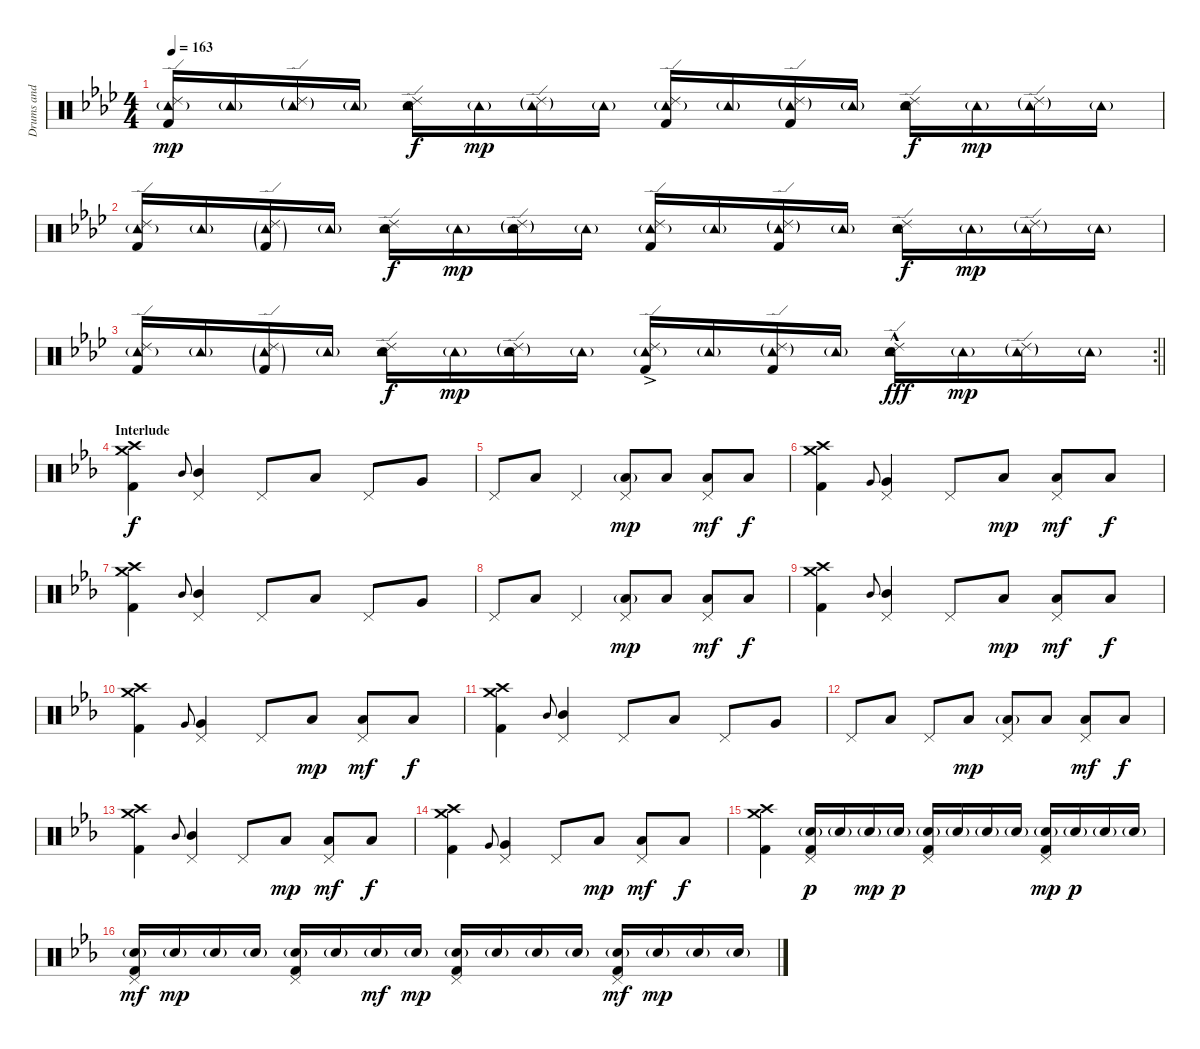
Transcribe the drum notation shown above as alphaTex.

\track ("Drums and Perc." "Drums and ") {instrument percussion}
\staff {score}
\articulation defaults
\ts (4 4)
\tempo 163
\clef neutral
\ks fminor
("Ride (edge) 2" "Tambourine (hit)"{g} "Kick (hit) 2").16{dy mp} "Tambourine (hit)"{g}.16 ("Ride (edge) 2"{g} "Tambourine (hit)"{g}).16 "Tambourine (hit)"{g}.16 ("Ride (edge) 2" "Tambourine (hit)" "Snare (hit) 2").16{dy f} "Tambourine (hit)"{g}.16{dy mp} ("Ride (edge) 2"{g} "Tambourine (hit)"{g}).16 "Tambourine (hit)"{g}.16 ("Ride (edge) 2" "Tambourine (hit)"{g} "Kick (hit) 2").16 "Tambourine (hit)"{g}.16 ("Ride (edge) 2"{g} "Tambourine (hit)"{g} "Kick (hit) 2").16 "Tambourine (hit)"{g}.16 ("Ride (edge) 2" "Tambourine (hit)" "Snare (hit) 2").16{dy f} "Tambourine (hit)"{g}.16{dy mp} ("Ride (edge) 2"{g} "Tambourine (hit)"{g}).16 "Tambourine (hit)"{g}.16 |
("Ride (edge) 2" "Tambourine (hit)"{g} "Kick (hit) 2").16 "Tambourine (hit)"{g}.16 ("Ride (edge) 2"{g} "Tambourine (hit)"{g} "Kick (hit) 2"{g}).16 "Tambourine (hit)"{g}.16 ("Ride (edge) 2" "Tambourine (hit)" "Snare (hit) 2").16{dy f} "Tambourine (hit)"{g}.16{dy mp} ("Ride (edge) 2"{g} "Tambourine (hit)"{g} "Snare (hit) 2").16 "Tambourine (hit)"{g}.16 ("Ride (edge) 2" "Tambourine (hit)"{g} "Kick (hit) 2").16 "Tambourine (hit)"{g}.16 ("Ride (edge) 2"{g} "Tambourine (hit)"{g} "Kick (hit) 2").16 "Tambourine (hit)"{g}.16 ("Ride (edge) 2" "Tambourine (hit)" "Snare (hit) 2").16{dy f} "Tambourine (hit)"{g}.16{dy mp} ("Ride (edge) 2"{g} "Tambourine (hit)"{g}).16 "Tambourine (hit)"{g}.16 |
\rc 2
\barLineRight lightlight
("Ride (edge) 2" "Tambourine (hit)"{g} "Kick (hit) 2").16 "Tambourine (hit)"{g}.16 ("Ride (edge) 2"{g} "Tambourine (hit)"{g} "Kick (hit) 2"{g}).16 "Tambourine (hit)"{g}.16 ("Ride (edge) 2" "Tambourine (hit)" "Snare (hit) 2").16{dy f} "Tambourine (hit)"{g}.16{dy mp} ("Ride (edge) 2"{g} "Tambourine (hit)"{g} "Snare (hit) 2").16 "Tambourine (hit)"{g}.16 ("Ride (edge) 2"{ac} "Tambourine (hit)"{g} "Kick (hit) 2").16 "Tambourine (hit)"{g}.16 ("Ride (edge) 2"{g} "Tambourine (hit)"{g} "Kick (hit) 2").16 "Tambourine (hit)"{g}.16 ("Ride (edge) 2"{hac} "Tambourine (hit)" "Snare (hit) 2").16{dy fff} "Tambourine (hit)"{g}.16{dy mp} ("Ride (edge) 2"{g} "Tambourine (hit)"{g}).16 "Tambourine (hit)"{g}.16 |
\section ("" "Interlude")
\ks cminor
("Crash high (hit)" "Crash medium (hit)" "Kick (hit) 2").4{dy f} "Mid Tom (hit)".8{gr onbeat} ("Pedal Hi-Hat (hit)" "Mid Tom (hit)").4 "Pedal Hi-Hat (hit)".8 "Low Tom (hit)".8 "Pedal Hi-Hat (hit)".8 "Very Low Tom (hit)".8 |
"Pedal Hi-Hat (hit)".8 "Low Floor Tom (hit)".8 "Pedal Hi-Hat (hit)".4 ("Pedal Hi-Hat (hit)" "Low Tom (hit)"{g}).8{dy mp} "Low Tom (hit)".8 ("Pedal Hi-Hat (hit)" "Low Tom (hit)").8{dy mf} "Low Tom (hit)".8{dy f} |
("Crash high (hit)" "Crash medium (hit)" "Kick (hit) 2").4 "Very Low Tom (hit)".8{gr onbeat} ("Pedal Hi-Hat (hit)" "Very Low Tom (hit)").4 "Pedal Hi-Hat (hit)".8 "Low Floor Tom (hit)".8{dy mp} ("Pedal Hi-Hat (hit)" "Low Floor Tom (hit)").8{dy mf} "Low Floor Tom (hit)".8{dy f} |
("Crash high (hit)" "Crash medium (hit)" "Kick (hit) 2").4 "Mid Tom (hit)".8{gr onbeat} ("Pedal Hi-Hat (hit)" "Mid Tom (hit)").4 "Pedal Hi-Hat (hit)".8 "Low Tom (hit)".8 "Pedal Hi-Hat (hit)".8 "Very Low Tom (hit)".8 |
"Pedal Hi-Hat (hit)".8 "Low Floor Tom (hit)".8 "Pedal Hi-Hat (hit)".4 ("Pedal Hi-Hat (hit)" "Low Tom (hit)"{g}).8{dy mp} "Low Tom (hit)".8 ("Pedal Hi-Hat (hit)" "Low Tom (hit)").8{dy mf} "Low Tom (hit)".8{dy f} |
("Crash high (hit)" "Crash medium (hit)" "Kick (hit) 2").4 "Mid Tom (hit)".8{gr onbeat} ("Pedal Hi-Hat (hit)" "Mid Tom (hit)").4 "Pedal Hi-Hat (hit)".8 "Low Tom (hit)".8{dy mp} ("Pedal Hi-Hat (hit)" "Low Tom (hit)").8{dy mf} "Low Tom (hit)".8{dy f} |
("Crash high (hit)" "Crash medium (hit)" "Kick (hit) 2").4 "Very Low Tom (hit)".8{gr onbeat} ("Pedal Hi-Hat (hit)" "Very Low Tom (hit)").4 "Pedal Hi-Hat (hit)".8 "Low Floor Tom (hit)".8{dy mp} ("Pedal Hi-Hat (hit)" "Low Floor Tom (hit)").8{dy mf} "Low Floor Tom (hit)".8{dy f} |
("Crash high (hit)" "Crash medium (hit)" "Kick (hit) 2").4 "Mid Tom (hit)".8{gr onbeat} ("Pedal Hi-Hat (hit)" "Mid Tom (hit)").4 "Pedal Hi-Hat (hit)".8 "Low Tom (hit)".8 "Pedal Hi-Hat (hit)".8 "Very Low Tom (hit)".8 |
"Pedal Hi-Hat (hit)".8 "Low Floor Tom (hit)".8 "Pedal Hi-Hat (hit)".8 "Low Floor Tom (hit)".8{dy mp} ("Pedal Hi-Hat (hit)" "Low Tom (hit)"{g}).8 "Low Tom (hit)".8 ("Pedal Hi-Hat (hit)" "Low Tom (hit)").8{dy mf} "Low Tom (hit)".8{dy f} |
("Crash high (hit)" "Crash medium (hit)" "Kick (hit) 2").4 "Mid Tom (hit)".8{gr onbeat} ("Pedal Hi-Hat (hit)" "Mid Tom (hit)").4 "Pedal Hi-Hat (hit)".8 "Low Tom (hit)".8{dy mp} ("Pedal Hi-Hat (hit)" "Low Tom (hit)").8{dy mf} "Low Tom (hit)".8{dy f} |
("Crash high (hit)" "Crash medium (hit)" "Kick (hit) 2").4 "Very Low Tom (hit)".8{gr onbeat} ("Pedal Hi-Hat (hit)" "Very Low Tom (hit)").4 "Pedal Hi-Hat (hit)".8 "Low Floor Tom (hit)".8{dy mp} ("Pedal Hi-Hat (hit)" "Low Floor Tom (hit)").8{dy mf} "Low Floor Tom (hit)".8{dy f} |
("Crash medium (hit)" "Crash high (hit)" "Kick (hit) 2").4 ("Pedal Hi-Hat (hit)" "Electric Snare (hit)"{g} "Kick (hit) 2").16{dy p} "Electric Snare (hit)"{g}.16 "Electric Snare (hit)"{g}.16{dy mp} "Electric Snare (hit)"{g}.16{dy p} ("Pedal Hi-Hat (hit)" "Electric Snare (hit)"{g} "Kick (hit) 2").16 "Electric Snare (hit)"{g}.16 "Electric Snare (hit)"{g}.16 "Electric Snare (hit)"{g}.16 ("Pedal Hi-Hat (hit)" "Electric Snare (hit)"{g} "Kick (hit) 2").16{dy mp} "Electric Snare (hit)"{g}.16{dy p} "Electric Snare (hit)"{g}.16 "Electric Snare (hit)"{g}.16 |
("Pedal Hi-Hat (hit)" "Electric Snare (hit)"{g} "Kick (hit) 2").16{dy mf} "Electric Snare (hit)"{g}.16{dy mp} "Electric Snare (hit)"{g}.16 "Electric Snare (hit)"{g}.16 ("Pedal Hi-Hat (hit)" "Electric Snare (hit)"{g} "Kick (hit) 2").16 "Electric Snare (hit)"{g}.16 "Electric Snare (hit)"{g}.16{dy mf} "Electric Snare (hit)"{g}.16{dy mp} ("Pedal Hi-Hat (hit)" "Electric Snare (hit)"{g} "Kick (hit) 2").16 "Electric Snare (hit)"{g}.16 "Electric Snare (hit)"{g}.16 "Electric Snare (hit)"{g}.16 ("Pedal Hi-Hat (hit)" "Electric Snare (hit)"{g} "Kick (hit) 2").16{dy mf} "Electric Snare (hit)"{g}.16{dy mp} "Electric Snare (hit)"{g}.16 "Electric Snare (hit)"{g}.16
